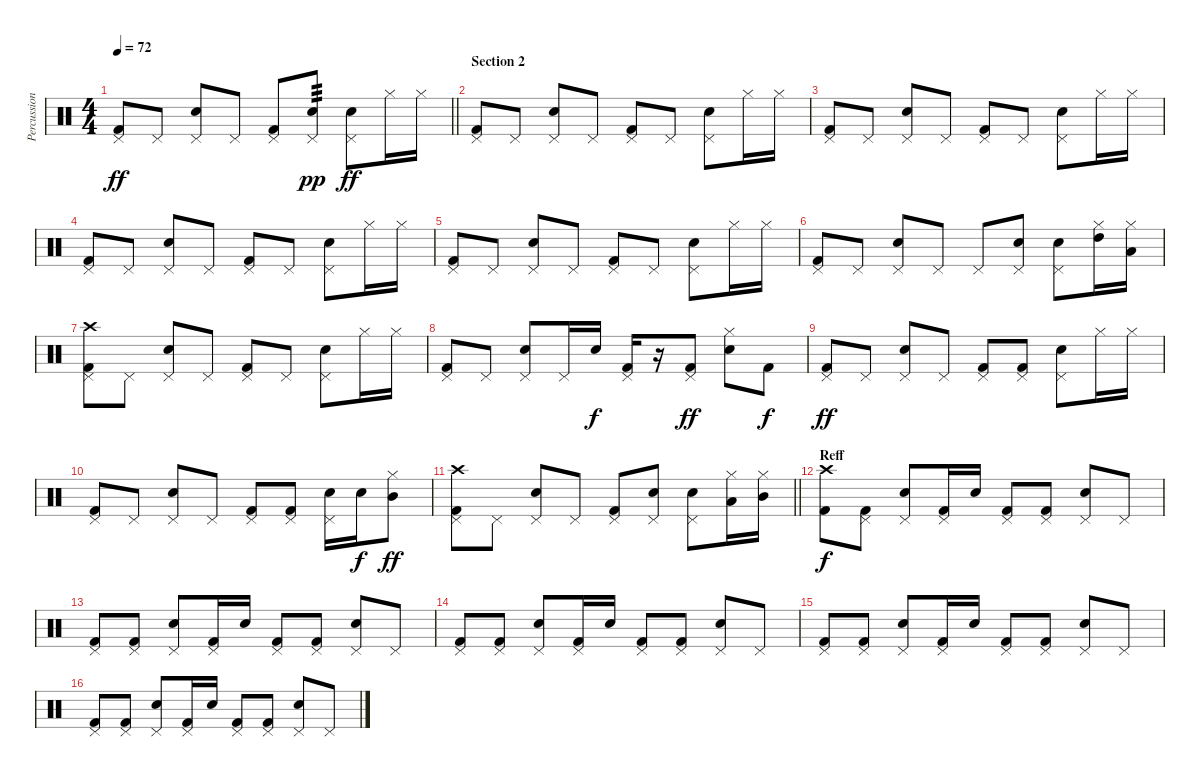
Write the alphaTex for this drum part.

\track ("Percussion" "Percussion") {instrument percussion}
\staff {score}
\articulation defaults
\ts (4 4)
\tempo 72
\clef neutral
\barLineRight lightlight
\ks c
("Pedal Hi-Hat (hit)" "Kick (hit) 2").8{dy ff} "Pedal Hi-Hat (hit)".8 ("Pedal Hi-Hat (hit)" "Snare (hit) 2").8 "Pedal Hi-Hat (hit)".8 ("Pedal Hi-Hat (hit)" "Kick (hit) 2").8 ("Pedal Hi-Hat (hit)" "Snare (hit) 2").8{tp 3 dy pp} ("Pedal Hi-Hat (hit)" "Snare (hit) 2").8{dy ff} "Hi-Hat (closed)".16 "Hi-Hat (closed)".16 |
\section ("" "Section 2")
("Pedal Hi-Hat (hit)" "Kick (hit) 2").8 "Pedal Hi-Hat (hit)".8 ("Pedal Hi-Hat (hit)" "Snare (hit) 2").8 "Pedal Hi-Hat (hit)".8 ("Pedal Hi-Hat (hit)" "Kick (hit) 2").8 "Pedal Hi-Hat (hit)".8 ("Pedal Hi-Hat (hit)" "Snare (hit) 2").8 "Hi-Hat (closed)".16 "Hi-Hat (closed)".16 |
("Pedal Hi-Hat (hit)" "Kick (hit) 2").8 "Pedal Hi-Hat (hit)".8 ("Pedal Hi-Hat (hit)" "Snare (hit) 2").8 "Pedal Hi-Hat (hit)".8 ("Pedal Hi-Hat (hit)" "Kick (hit) 2").8 "Pedal Hi-Hat (hit)".8 ("Pedal Hi-Hat (hit)" "Snare (hit) 2").8 "Hi-Hat (closed)".16 "Hi-Hat (closed)".16 |
("Pedal Hi-Hat (hit)" "Kick (hit) 2").8 "Pedal Hi-Hat (hit)".8 ("Pedal Hi-Hat (hit)" "Snare (hit) 2").8 "Pedal Hi-Hat (hit)".8 ("Pedal Hi-Hat (hit)" "Kick (hit) 2").8 "Pedal Hi-Hat (hit)".8 ("Pedal Hi-Hat (hit)" "Snare (hit) 2").8 "Hi-Hat (closed)".16 "Hi-Hat (closed)".16 |
("Pedal Hi-Hat (hit)" "Kick (hit) 2").8 "Pedal Hi-Hat (hit)".8 ("Pedal Hi-Hat (hit)" "Snare (hit) 2").8 "Pedal Hi-Hat (hit)".8 ("Pedal Hi-Hat (hit)" "Kick (hit) 2").8 "Pedal Hi-Hat (hit)".8 ("Pedal Hi-Hat (hit)" "Snare (hit) 2").8 "Hi-Hat (closed)".16 "Hi-Hat (closed)".16 |
("Pedal Hi-Hat (hit)" "Kick (hit) 2").8 "Pedal Hi-Hat (hit)".8 ("Pedal Hi-Hat (hit)" "Snare (hit) 2").8 "Pedal Hi-Hat (hit)".8 "Pedal Hi-Hat (hit)".8 ("Pedal Hi-Hat (hit)" "Snare (hit) 2").8 ("Pedal Hi-Hat (hit)" "Snare (hit) 2").8 ("Hi-Hat (closed)" "High Tom (hit)").16 ("Hi-Hat (closed)" "Low Tom (hit)").16 |
("Pedal Hi-Hat (hit)" "Crash high (hit)" "Kick (hit) 2").8 "Pedal Hi-Hat (hit)".8 ("Pedal Hi-Hat (hit)" "Snare (hit) 2").8 "Pedal Hi-Hat (hit)".8 ("Pedal Hi-Hat (hit)" "Kick (hit) 2").8 "Pedal Hi-Hat (hit)".8 ("Pedal Hi-Hat (hit)" "Snare (hit) 2").8 "Hi-Hat (closed)".16 "Hi-Hat (closed)".16 |
("Pedal Hi-Hat (hit)" "Kick (hit) 2").8 "Pedal Hi-Hat (hit)".8 ("Pedal Hi-Hat (hit)" "Snare (hit) 2").8 "Pedal Hi-Hat (hit)".16 "Snare (hit) 2".16{dy f} ("Pedal Hi-Hat (hit)" "Kick (hit) 2").16 r.16 ("Pedal Hi-Hat (hit)" "Kick (hit) 2").8{dy ff} ("Hi-Hat (closed)" "Snare (hit) 2").8 "Kick (hit) 2".8{dy f} |
("Pedal Hi-Hat (hit)" "Kick (hit) 2").8{dy ff} "Pedal Hi-Hat (hit)".8 ("Pedal Hi-Hat (hit)" "Snare (hit) 2").8 "Pedal Hi-Hat (hit)".8 ("Pedal Hi-Hat (hit)" "Kick (hit) 2").8 ("Pedal Hi-Hat (hit)" "Kick (hit) 2").8 ("Pedal Hi-Hat (hit)" "Snare (hit) 2").8 "Hi-Hat (closed)".16 "Hi-Hat (closed)".16 |
("Pedal Hi-Hat (hit)" "Kick (hit) 2").8 "Pedal Hi-Hat (hit)".8 ("Pedal Hi-Hat (hit)" "Snare (hit) 2").8 "Pedal Hi-Hat (hit)".8 ("Pedal Hi-Hat (hit)" "Kick (hit) 2").8 ("Pedal Hi-Hat (hit)" "Kick (hit) 2").8 ("Pedal Hi-Hat (hit)" "Snare (hit) 2").16 "Snare (hit) 2".16{dy f} ("Hi-Hat (closed)" "Mid Tom (hit)").8{dy ff} |
\barLineRight lightlight
("Pedal Hi-Hat (hit)" "Crash high (hit)" "Kick (hit) 2").8 "Pedal Hi-Hat (hit)".8 ("Pedal Hi-Hat (hit)" "Snare (hit) 2").8 "Pedal Hi-Hat (hit)".8 ("Pedal Hi-Hat (hit)" "Kick (hit) 2").8 ("Pedal Hi-Hat (hit)" "Snare (hit) 2").8 ("Pedal Hi-Hat (hit)" "Snare (hit) 2").8 ("Hi-Hat (closed)" "Low Tom (hit)").16 ("Hi-Hat (closed)" "Mid Tom (hit)").16 |
\section ("" "Reff")
("Crash high (hit)" "Kick (hit) 2").8{dy f} ("Pedal Hi-Hat (hit)" "Kick (hit) 2").8 ("Pedal Hi-Hat (hit)" "Snare (hit) 2").8 ("Pedal Hi-Hat (hit)" "Kick (hit) 2").16 "Snare (hit) 2".16 ("Pedal Hi-Hat (hit)" "Kick (hit) 2").8 ("Pedal Hi-Hat (hit)" "Kick (hit) 2").8 ("Pedal Hi-Hat (hit)" "Snare (hit) 2").8 "Pedal Hi-Hat (hit)".8 |
("Pedal Hi-Hat (hit)" "Kick (hit) 2").8 ("Pedal Hi-Hat (hit)" "Kick (hit) 2").8 ("Pedal Hi-Hat (hit)" "Snare (hit) 2").8 ("Pedal Hi-Hat (hit)" "Kick (hit) 2").16 "Snare (hit) 2".16 ("Pedal Hi-Hat (hit)" "Kick (hit) 2").8 ("Pedal Hi-Hat (hit)" "Kick (hit) 2").8 ("Pedal Hi-Hat (hit)" "Snare (hit) 2").8 "Pedal Hi-Hat (hit)".8 |
("Pedal Hi-Hat (hit)" "Kick (hit) 2").8 ("Pedal Hi-Hat (hit)" "Kick (hit) 2").8 ("Pedal Hi-Hat (hit)" "Snare (hit) 2").8 ("Pedal Hi-Hat (hit)" "Kick (hit) 2").16 "Snare (hit) 2".16 ("Pedal Hi-Hat (hit)" "Kick (hit) 2").8 ("Pedal Hi-Hat (hit)" "Kick (hit) 2").8 ("Pedal Hi-Hat (hit)" "Snare (hit) 2").8 "Pedal Hi-Hat (hit)".8 |
("Pedal Hi-Hat (hit)" "Kick (hit) 2").8 ("Pedal Hi-Hat (hit)" "Kick (hit) 2").8 ("Pedal Hi-Hat (hit)" "Snare (hit) 2").8 ("Pedal Hi-Hat (hit)" "Kick (hit) 2").16 "Snare (hit) 2".16 ("Pedal Hi-Hat (hit)" "Kick (hit) 2").8 ("Pedal Hi-Hat (hit)" "Kick (hit) 2").8 ("Pedal Hi-Hat (hit)" "Snare (hit) 2").8 "Pedal Hi-Hat (hit)".8 |
("Pedal Hi-Hat (hit)" "Kick (hit) 2").8 ("Pedal Hi-Hat (hit)" "Kick (hit) 2").8 ("Pedal Hi-Hat (hit)" "Snare (hit) 2").8 ("Pedal Hi-Hat (hit)" "Kick (hit) 2").16 "Snare (hit) 2".16 ("Pedal Hi-Hat (hit)" "Kick (hit) 2").8 ("Pedal Hi-Hat (hit)" "Kick (hit) 2").8 ("Pedal Hi-Hat (hit)" "Snare (hit) 2").8 "Pedal Hi-Hat (hit)".8
